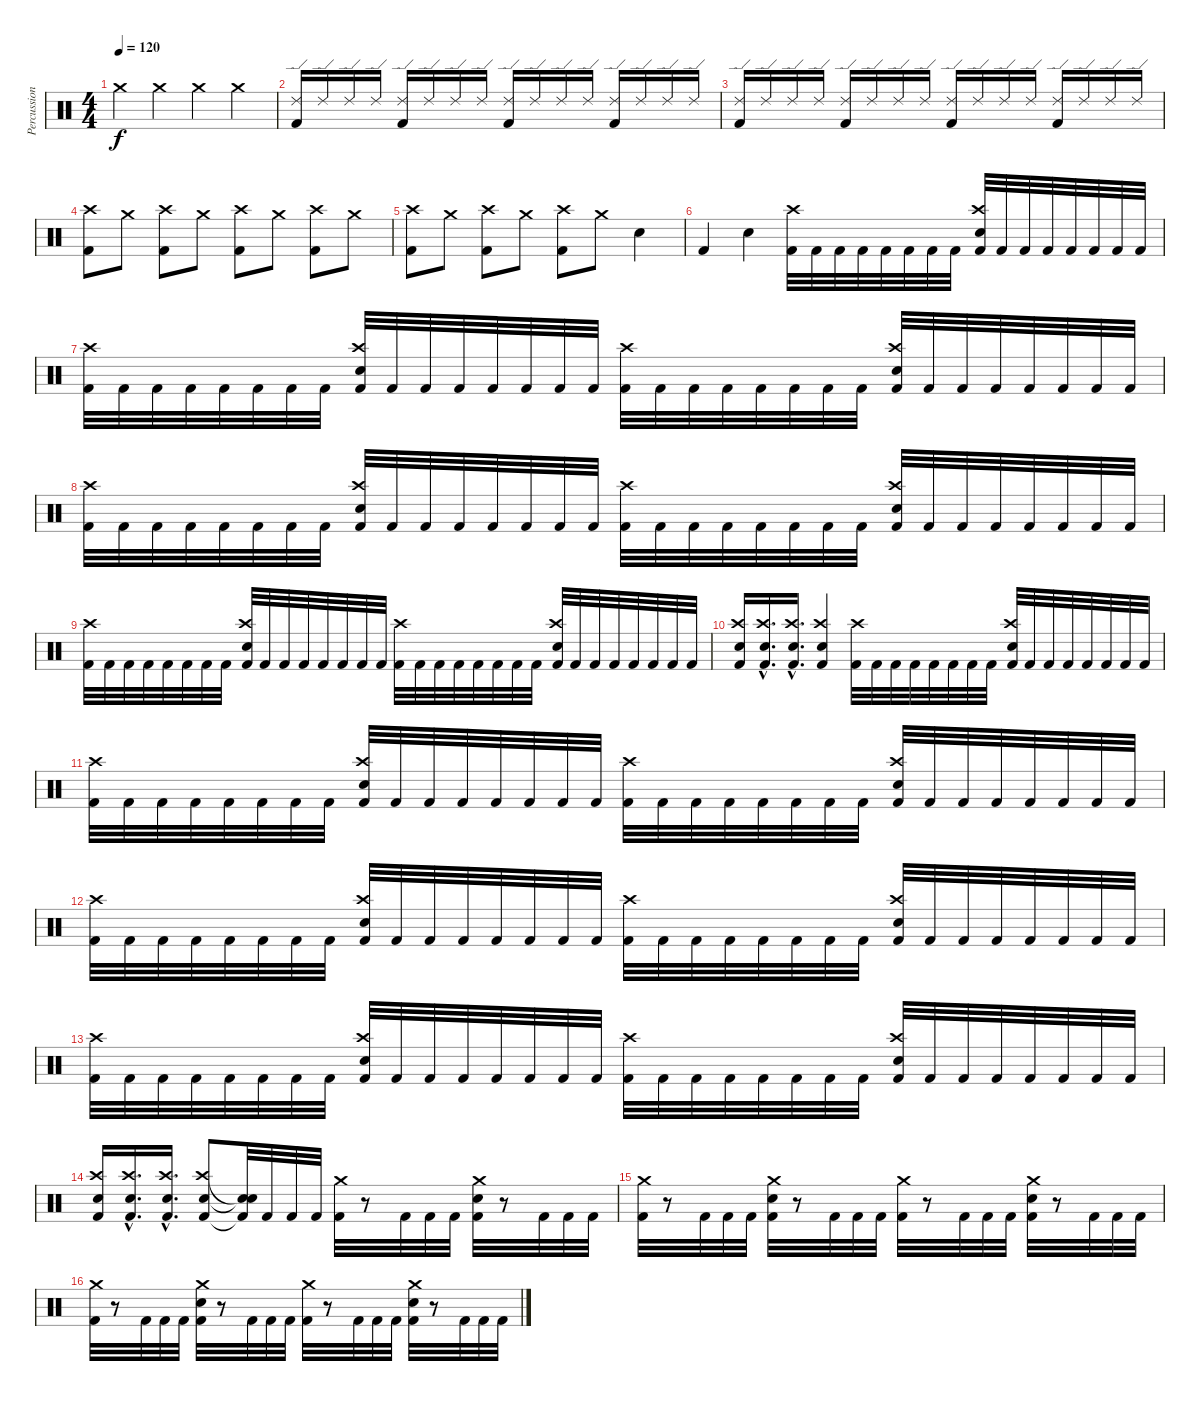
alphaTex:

\track ("Percussion" "Percussion") {instrument percussion}
\staff {score}
\articulation defaults
\ts (4 4)
\tempo 120
\clef neutral
\ks c "Crash medium (hit)".4{dy f} "Crash medium (hit)".4 "Crash medium (hit)".4 "Crash medium (hit)".4
|
("Ride (edge) 2" "Kick (hit) 2").16 "Ride (edge) 2".16 "Ride (edge) 2".16 "Ride (edge) 2".16 ("Ride (edge) 2" "Kick (hit) 2").16 "Ride (edge) 2".16 "Ride (edge) 2".16 "Ride (edge) 2".16 ("Ride (edge) 2" "Kick (hit) 2").16 "Ride (edge) 2".16 "Ride (edge) 2".16 "Ride (edge) 2".16 ("Ride (edge) 2" "Kick (hit) 2").16 "Ride (edge) 2".16 "Ride (edge) 2".16 "Ride (edge) 2".16 |
("Ride (edge) 2" "Kick (hit) 2").16 "Ride (edge) 2".16 "Ride (edge) 2".16 "Ride (edge) 2".16 ("Ride (edge) 2" "Kick (hit) 2").16 "Ride (edge) 2".16 "Ride (edge) 2".16 "Ride (edge) 2".16 ("Ride (edge) 2" "Kick (hit) 2").16 "Ride (edge) 2".16 "Ride (edge) 2".16 "Ride (edge) 2".16 ("Ride (edge) 2" "Kick (hit) 2").16 "Ride (edge) 2".16 "Ride (edge) 2".16 "Ride (edge) 2".16 |
("Crash high (hit)" "Kick (hit) 2").8 "Crash medium (hit)".8 ("Crash high (hit)" "Kick (hit) 2").8 "Crash medium (hit)".8 ("Crash high (hit)" "Kick (hit) 2").8 "Crash medium (hit)".8 ("Crash high (hit)" "Kick (hit) 2").8 "Crash medium (hit)".8 |
("Crash high (hit)" "Kick (hit) 2").8 "Crash medium (hit)".8 ("Crash high (hit)" "Kick (hit) 2").8 "Crash medium (hit)".8 ("Crash high (hit)" "Kick (hit) 2").8 "Crash medium (hit)".8 "Electric Snare (hit)".4 |
"Kick (hit) 2".4 "Electric Snare (hit)".4 ("Crash high (hit)" "Kick (hit) 2").32 "Kick (hit) 2".32 "Kick (hit) 2".32 "Kick (hit) 2".32 "Kick (hit) 2".32 "Kick (hit) 2".32 "Kick (hit) 2".32 "Kick (hit) 2".32 ("Crash high (hit)" "Electric Snare (hit)" "Kick (hit) 2").32 "Kick (hit) 2".32 "Kick (hit) 2".32 "Kick (hit) 2".32 "Kick (hit) 2".32 "Kick (hit) 2".32 "Kick (hit) 2".32 "Kick (hit) 2".32 |
("Crash high (hit)" "Kick (hit) 2").32 "Kick (hit) 2".32 "Kick (hit) 2".32 "Kick (hit) 2".32 "Kick (hit) 2".32 "Kick (hit) 2".32 "Kick (hit) 2".32 "Kick (hit) 2".32 ("Crash high (hit)" "Electric Snare (hit)" "Kick (hit) 2").32 "Kick (hit) 2".32 "Kick (hit) 2".32 "Kick (hit) 2".32 "Kick (hit) 2".32 "Kick (hit) 2".32 "Kick (hit) 2".32 "Kick (hit) 2".32 ("Crash high (hit)" "Kick (hit) 2").32 "Kick (hit) 2".32 "Kick (hit) 2".32 "Kick (hit) 2".32 "Kick (hit) 2".32 "Kick (hit) 2".32 "Kick (hit) 2".32 "Kick (hit) 2".32 ("Crash high (hit)" "Electric Snare (hit)" "Kick (hit) 2").32 "Kick (hit) 2".32 "Kick (hit) 2".32 "Kick (hit) 2".32 "Kick (hit) 2".32 "Kick (hit) 2".32 "Kick (hit) 2".32 "Kick (hit) 2".32 |
("Crash high (hit)" "Kick (hit) 2").32 "Kick (hit) 2".32 "Kick (hit) 2".32 "Kick (hit) 2".32 "Kick (hit) 2".32 "Kick (hit) 2".32 "Kick (hit) 2".32 "Kick (hit) 2".32 ("Crash high (hit)" "Electric Snare (hit)" "Kick (hit) 2").32 "Kick (hit) 2".32 "Kick (hit) 2".32 "Kick (hit) 2".32 "Kick (hit) 2".32 "Kick (hit) 2".32 "Kick (hit) 2".32 "Kick (hit) 2".32 ("Crash high (hit)" "Kick (hit) 2").32 "Kick (hit) 2".32 "Kick (hit) 2".32 "Kick (hit) 2".32 "Kick (hit) 2".32 "Kick (hit) 2".32 "Kick (hit) 2".32 "Kick (hit) 2".32 ("Crash high (hit)" "Electric Snare (hit)" "Kick (hit) 2").32 "Kick (hit) 2".32 "Kick (hit) 2".32 "Kick (hit) 2".32 "Kick (hit) 2".32 "Kick (hit) 2".32 "Kick (hit) 2".32 "Kick (hit) 2".32 |
("Crash high (hit)" "Kick (hit) 2").32 "Kick (hit) 2".32 "Kick (hit) 2".32 "Kick (hit) 2".32 "Kick (hit) 2".32 "Kick (hit) 2".32 "Kick (hit) 2".32 "Kick (hit) 2".32 ("Crash high (hit)" "Electric Snare (hit)" "Kick (hit) 2").32 "Kick (hit) 2".32 "Kick (hit) 2".32 "Kick (hit) 2".32 "Kick (hit) 2".32 "Kick (hit) 2".32 "Kick (hit) 2".32 "Kick (hit) 2".32 ("Crash high (hit)" "Kick (hit) 2").32 "Kick (hit) 2".32 "Kick (hit) 2".32 "Kick (hit) 2".32 "Kick (hit) 2".32 "Kick (hit) 2".32 "Kick (hit) 2".32 "Kick (hit) 2".32 ("Crash high (hit)" "Electric Snare (hit)" "Kick (hit) 2").32 "Kick (hit) 2".32 "Kick (hit) 2".32 "Kick (hit) 2".32 "Kick (hit) 2".32 "Kick (hit) 2".32 "Kick (hit) 2".32 "Kick (hit) 2".32 |
("Crash high (hit)" "Electric Snare (hit)" "Kick (hit) 2").16 ("Crash high (hit)"{hac} "Electric Snare (hit)"{hac} "Kick (hit) 2"{hac}).16{d} ("Crash high (hit)"{hac} "Electric Snare (hit)"{hac} "Kick (hit) 2"{hac}).16{d} ("Crash high (hit)" "Electric Snare (hit)" "Kick (hit) 2").4 ("Crash high (hit)" "Kick (hit) 2").32 "Kick (hit) 2".32 "Kick (hit) 2".32 "Kick (hit) 2".32 "Kick (hit) 2".32 "Kick (hit) 2".32 "Kick (hit) 2".32 "Kick (hit) 2".32 ("Crash high (hit)" "Electric Snare (hit)" "Kick (hit) 2").32 "Kick (hit) 2".32 "Kick (hit) 2".32 "Kick (hit) 2".32 "Kick (hit) 2".32 "Kick (hit) 2".32 "Kick (hit) 2".32 "Kick (hit) 2".32 |
("Crash high (hit)" "Kick (hit) 2").32 "Kick (hit) 2".32 "Kick (hit) 2".32 "Kick (hit) 2".32 "Kick (hit) 2".32 "Kick (hit) 2".32 "Kick (hit) 2".32 "Kick (hit) 2".32 ("Crash high (hit)" "Electric Snare (hit)" "Kick (hit) 2").32 "Kick (hit) 2".32 "Kick (hit) 2".32 "Kick (hit) 2".32 "Kick (hit) 2".32 "Kick (hit) 2".32 "Kick (hit) 2".32 "Kick (hit) 2".32 ("Crash high (hit)" "Kick (hit) 2").32 "Kick (hit) 2".32 "Kick (hit) 2".32 "Kick (hit) 2".32 "Kick (hit) 2".32 "Kick (hit) 2".32 "Kick (hit) 2".32 "Kick (hit) 2".32 ("Crash high (hit)" "Electric Snare (hit)" "Kick (hit) 2").32 "Kick (hit) 2".32 "Kick (hit) 2".32 "Kick (hit) 2".32 "Kick (hit) 2".32 "Kick (hit) 2".32 "Kick (hit) 2".32 "Kick (hit) 2".32 |
("Crash high (hit)" "Kick (hit) 2").32 "Kick (hit) 2".32 "Kick (hit) 2".32 "Kick (hit) 2".32 "Kick (hit) 2".32 "Kick (hit) 2".32 "Kick (hit) 2".32 "Kick (hit) 2".32 ("Crash high (hit)" "Electric Snare (hit)" "Kick (hit) 2").32 "Kick (hit) 2".32 "Kick (hit) 2".32 "Kick (hit) 2".32 "Kick (hit) 2".32 "Kick (hit) 2".32 "Kick (hit) 2".32 "Kick (hit) 2".32 ("Crash high (hit)" "Kick (hit) 2").32 "Kick (hit) 2".32 "Kick (hit) 2".32 "Kick (hit) 2".32 "Kick (hit) 2".32 "Kick (hit) 2".32 "Kick (hit) 2".32 "Kick (hit) 2".32 ("Crash high (hit)" "Electric Snare (hit)" "Kick (hit) 2").32 "Kick (hit) 2".32 "Kick (hit) 2".32 "Kick (hit) 2".32 "Kick (hit) 2".32 "Kick (hit) 2".32 "Kick (hit) 2".32 "Kick (hit) 2".32 |
("Crash high (hit)" "Kick (hit) 2").32 "Kick (hit) 2".32 "Kick (hit) 2".32 "Kick (hit) 2".32 "Kick (hit) 2".32 "Kick (hit) 2".32 "Kick (hit) 2".32 "Kick (hit) 2".32 ("Crash high (hit)" "Electric Snare (hit)" "Kick (hit) 2").32 "Kick (hit) 2".32 "Kick (hit) 2".32 "Kick (hit) 2".32 "Kick (hit) 2".32 "Kick (hit) 2".32 "Kick (hit) 2".32 "Kick (hit) 2".32 ("Crash high (hit)" "Kick (hit) 2").32 "Kick (hit) 2".32 "Kick (hit) 2".32 "Kick (hit) 2".32 "Kick (hit) 2".32 "Kick (hit) 2".32 "Kick (hit) 2".32 "Kick (hit) 2".32 ("Crash high (hit)" "Electric Snare (hit)" "Kick (hit) 2").32 "Kick (hit) 2".32 "Kick (hit) 2".32 "Kick (hit) 2".32 "Kick (hit) 2".32 "Kick (hit) 2".32 "Kick (hit) 2".32 "Kick (hit) 2".32 |
("Crash high (hit)" "Electric Snare (hit)" "Kick (hit) 2").16 ("Crash high (hit)"{hac} "Electric Snare (hit)"{hac} "Kick (hit) 2"{hac}).16{d} ("Crash high (hit)"{hac} "Electric Snare (hit)"{hac} "Kick (hit) 2"{hac}).16{d} ("Crash high (hit)" "Electric Snare (hit)" "Kick (hit) 2").8 ("Snare (hit)"{t} "Snare (hit)"{t} "Kick (hit) 2"{t}).32 "Kick (hit) 2".32 "Kick (hit) 2".32 "Kick (hit) 2".32 ("Crash medium (hit)" "Kick (hit) 2").32 r.8 "Kick (hit) 2".32 "Kick (hit) 2".32 "Kick (hit) 2".32 ("Crash medium (hit)" "Electric Snare (hit)" "Kick (hit) 2").32 r.8 "Kick (hit) 2".32 "Kick (hit) 2".32 "Kick (hit) 2".32 |
("Crash medium (hit)" "Kick (hit) 2").32 r.8 "Kick (hit) 2".32 "Kick (hit) 2".32 "Kick (hit) 2".32 ("Crash medium (hit)" "Electric Snare (hit)" "Kick (hit) 2").32 r.8 "Kick (hit) 2".32 "Kick (hit) 2".32 "Kick (hit) 2".32 ("Crash medium (hit)" "Kick (hit) 2").32 r.8 "Kick (hit) 2".32 "Kick (hit) 2".32 "Kick (hit) 2".32 ("Crash medium (hit)" "Electric Snare (hit)" "Kick (hit) 2").32 r.8 "Kick (hit) 2".32 "Kick (hit) 2".32 "Kick (hit) 2".32 |
("Crash medium (hit)" "Kick (hit) 2").32 r.8 "Kick (hit) 2".32 "Kick (hit) 2".32 "Kick (hit) 2".32 ("Crash medium (hit)" "Electric Snare (hit)" "Kick (hit) 2").32 r.8 "Kick (hit) 2".32 "Kick (hit) 2".32 "Kick (hit) 2".32 ("Crash medium (hit)" "Kick (hit) 2").32 r.8 "Kick (hit) 2".32 "Kick (hit) 2".32 "Kick (hit) 2".32 ("Crash medium (hit)" "Electric Snare (hit)" "Kick (hit) 2").32 r.8 "Kick (hit) 2".32 "Kick (hit) 2".32 "Kick (hit) 2".32
